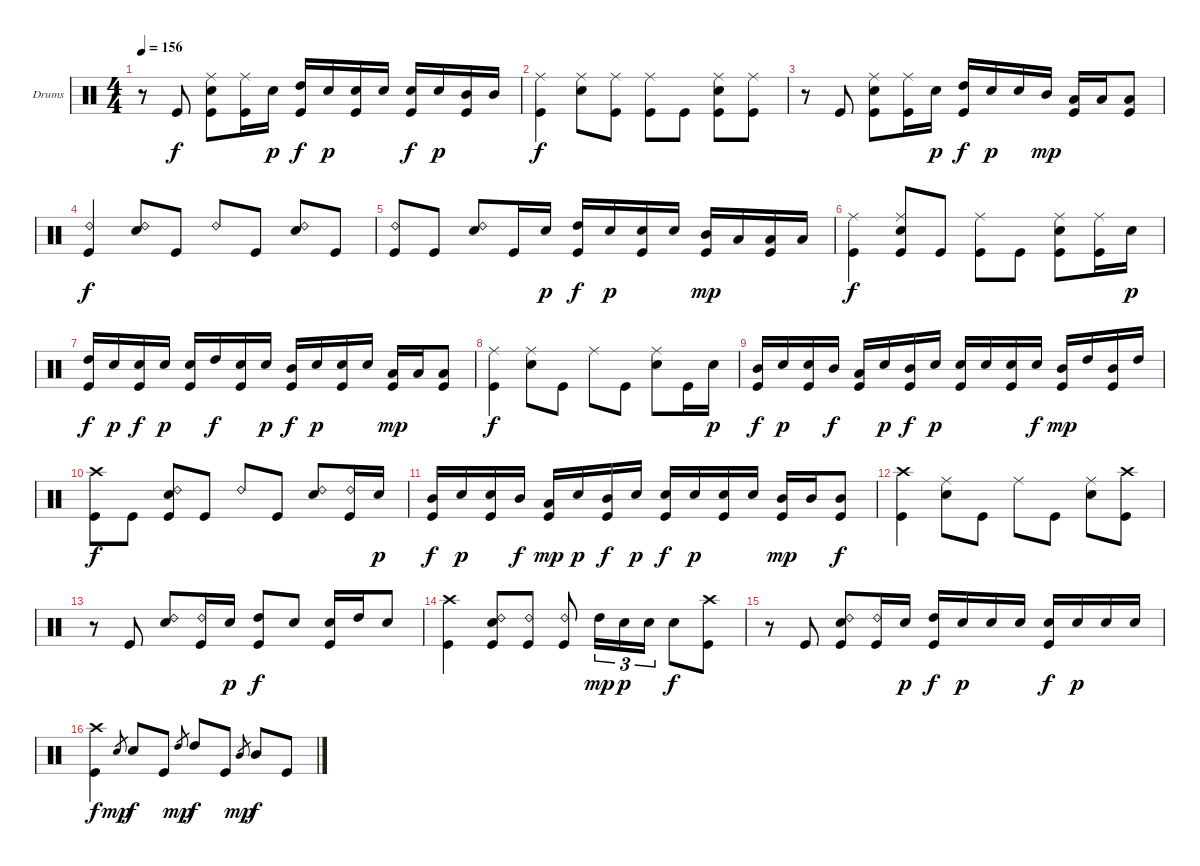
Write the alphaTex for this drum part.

\bracketExtendMode groupsimilarinstruments
\firstSystemTrackNameOrientation horizontal
\otherSystemsTrackNameOrientation horizontal
\track ("Drumkit" "Drums") {instrument percussion}
\staff {score}
\articulation defaults
\ts (4 4)
\tempo 156
\clef neutral
\ks c
r.8{dy f} "Kick (hit)".8 ("Ride (middle)" "Snare (hit) 2" "Kick (hit)").8 ("Ride (middle)" "Kick (hit)").16 "Snare (hit) 2".16{dy p} ("High Tom (hit)" "Kick (hit)").16{dy f} "Snare (hit) 2".16{dy p} ("Snare (hit) 2" "Kick (hit)").16 "Snare (hit) 2".16 ("Snare (hit) 2" "Kick (hit)").16{dy f} "Snare (hit) 2".16{dy p} ("Mid Tom (hit)" "Kick (hit)").16 "Mid Tom (hit)".16 |
("Ride (middle)" "Kick (hit)").4{dy f} ("Ride (middle)" "Snare (hit) 2").8 ("Ride (middle)" "Kick (hit)").8 ("Ride (middle)" "Kick (hit)").8 "Kick (hit)".8 ("Ride (middle)" "Snare (hit) 2" "Kick (hit)").8 ("Ride (middle)" "Kick (hit)").8 |
r.8 "Kick (hit)".8 ("Ride (middle)" "Snare (hit) 2" "Kick (hit)").8 ("Ride (middle)" "Kick (hit)").16 "Snare (hit) 2".16{dy p} ("High Tom (hit)" "Kick (hit)").16{dy f} "Snare (hit) 2".16{dy p} "Snare (hit) 2".16 "Mid Tom (hit)".16{dy mp} ("Low Tom (hit)" "Kick (hit)").16 "Low Tom (hit)".16 ("Low Tom (hit)" "Kick (hit)").8 |
("Ride (bell) 2" "Kick (hit)").4{dy f} ("Ride (bell) 2" "Snare (hit) 2").8 "Kick (hit)".8 "Ride (bell) 2".8 "Kick (hit)".8 ("Ride (bell) 2" "Snare (hit) 2").8 "Kick (hit)".8 |
("Ride (bell) 2" "Kick (hit)").8 "Kick (hit)".8 ("Ride (bell) 2" "Snare (hit) 2").8 "Kick (hit)".16 "Snare (hit) 2".16{dy p} ("High Tom (hit)" "Kick (hit)").16{dy f} "Snare (hit) 2".16{dy p} ("Snare (hit) 2" "Kick (hit)").16 "Snare (hit) 2".16 ("Mid Tom (hit)" "Kick (hit)").16{dy mp} "Low Tom (hit)".16 ("Low Tom (hit)" "Kick (hit)").16 "Low Tom (hit)".16 |
("Ride (middle)" "Kick (hit)").4{dy f} ("Ride (middle)" "Snare (hit) 2" "Kick (hit)").8 "Kick (hit)".8 ("Ride (middle)" "Kick (hit)").8 "Kick (hit)".8 ("Ride (middle)" "Snare (hit) 2" "Kick (hit)").8 ("Ride (middle)" "Kick (hit)").16 "Snare (hit) 2".16{dy p} |
("High Tom (hit)" "Kick (hit)").16{dy f} "Snare (hit) 2".16{dy p} ("Snare (hit) 2" "Kick (hit)").16{dy f} "Snare (hit) 2".16{dy p} ("Snare (hit) 2" "Kick (hit)").16 "High Tom (hit)".16{dy f} ("Snare (hit) 2" "Kick (hit)").16 "Snare (hit) 2".16{dy p} ("Mid Tom (hit)" "Kick (hit)").16{dy f} "Snare (hit) 2".16{dy p} ("Snare (hit) 2" "Kick (hit)").16 "Snare (hit) 2".16 ("Low Tom (hit)" "Kick (hit)").16{dy mp} "Low Tom (hit)".16 ("Low Tom (hit)" "Kick (hit)").8 |
("Ride (middle)" "Kick (hit)").4{dy f} ("Ride (middle)" "Snare (hit) 2").8 "Kick (hit)".8 "Ride (middle)".8 "Kick (hit)".8 ("Ride (middle)" "Snare (hit) 2").8 "Kick (hit)".16 "Snare (hit) 2".16{dy p} |
("Mid Tom (hit)" "Kick (hit)").16{dy f} "Snare (hit) 2".16{dy p} ("Snare (hit) 2" "Kick (hit)").16 "Mid Tom (hit)".16{dy f} ("Low Tom (hit)" "Kick (hit)").16 "Snare (hit) 2".16{dy p} ("Mid Tom (hit)" "Kick (hit)").16{dy f} "Snare (hit) 2".16{dy p} ("Snare (hit) 2" "Kick (hit)").16 "Snare (hit) 2".16 ("Snare (hit) 2" "Kick (hit)").16 "Snare (hit) 2".16{dy f} ("Mid Tom (hit)" "Kick (hit)").16{dy mp} "High Tom (hit)".16 ("Mid Tom (hit)" "Kick (hit)").16 "High Tom (hit)".16 |
("Crash high (hit)" "Kick (hit)").8{dy f} "Kick (hit)".8 ("Ride (bell) 2" "Snare (hit) 2" "Kick (hit)").8 "Kick (hit)".8 "Ride (bell) 2".8 "Kick (hit)".8 ("Ride (bell) 2" "Snare (hit) 2").8 ("Ride (bell) 2" "Kick (hit)").16 "Snare (hit) 2".16{dy p} |
("Mid Tom (hit)" "Kick (hit)").16{dy f} "Snare (hit) 2".16{dy p} ("Snare (hit) 2" "Kick (hit)").16 "Mid Tom (hit)".16{dy f} ("Low Tom (hit)" "Kick (hit)").16{dy mp} "Snare (hit) 2".16{dy p} ("Mid Tom (hit)" "Kick (hit)").16{dy f} "Snare (hit) 2".16{dy p} ("Snare (hit) 2" "Kick (hit)").16{dy f} "Snare (hit) 2".16{dy p} ("Snare (hit) 2" "Kick (hit)").16 "Snare (hit) 2".16 ("Mid Tom (hit)" "Kick (hit)").16{dy mp} "Mid Tom (hit)".16 ("Mid Tom (hit)" "Kick (hit)").8{dy f} |
("Crash high (hit)" "Kick (hit)").4 ("Ride (middle)" "Snare (hit) 2").8 "Kick (hit)".8 "Ride (middle)".8 "Kick (hit)".8 ("Ride (middle)" "Snare (hit) 2").8 ("Crash high (hit)" "Kick (hit)").8 |
r.8 "Kick (hit)".8 ("Ride (bell) 2" "Snare (hit) 2").8 ("Ride (bell) 2" "Kick (hit)").16 "Snare (hit) 2".16{dy p} ("High Tom (hit)" "Kick (hit)").8{dy f} "Snare (hit) 2".8 ("Snare (hit) 2" "Kick (hit)").16 "High Tom (hit)".16 "Snare (hit) 2".8 |
("Crash high (hit)" "Kick (hit)").4 ("Ride (bell) 2" "Snare (hit) 2" "Kick (hit)").8 ("Ride (bell) 2" "Kick (hit)").8 ("Ride (bell) 2" "Kick (hit)").8 "High Tom (hit)".16{tu (3 2) dy mp} "Snare (hit) 2".16{tu (3 2) dy p} "Snare (hit) 2".16{tu (3 2)} "Snare (hit) 2".8{dy f} ("Crash high (hit)" "Kick (hit)").8 |
r.8 "Kick (hit)".8 ("Ride (bell) 2" "Snare (hit) 2" "Kick (hit)").8 ("Ride (bell) 2" "Kick (hit)").16 "Snare (hit) 2".16{dy p} ("High Tom (hit)" "Kick (hit)").16{dy f} "Snare (hit) 2".16{dy p} "Snare (hit) 2".16 "Snare (hit) 2".16 ("Snare (hit) 2" "Kick (hit)").16{dy f} "Snare (hit) 2".16{dy p} "Snare (hit) 2".16 "Snare (hit) 2".16 |
("Crash high (hit)" "Kick (hit)").4{dy f} "Snare (hit) 2".8{gr dy mp} "Snare (hit) 2".8{dy f} "Kick (hit)".8 "High Tom (hit)".8{gr dy mp} "High Tom (hit)".8{dy f} "Kick (hit)".8 "Mid Tom (hit)".8{gr dy mp} "Mid Tom (hit)".8{dy f} "Kick (hit)".8
